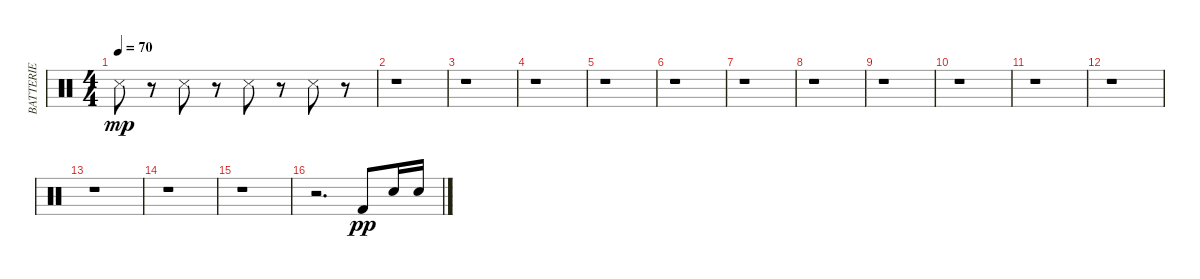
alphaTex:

\track ("BATTERIE" "BATTERIE") {instrument percussion}
\staff {score}
\articulation defaults
\ts (4 4)
\tempo 70
\clef neutral
\ks c "Snare (side stick) 3".8{dy mp}
r.8 "Snare (side stick) 3".8 r.8 "Snare (side stick) 3".8 r.8 "Snare (side stick) 3".8 r.8 |
r.1 |
r.1 |
r.1 |
r.1 |
r.1 |
r.1 |
r.1 |
r.1 |
r.1 |
r.1 |
r.1 |
r.1 |
r.1 |
r.1 |
r.2{d} "Kick (hit) 2".8{dy pp} "Snare (hit) 2".16 "Snare (hit) 2".16
